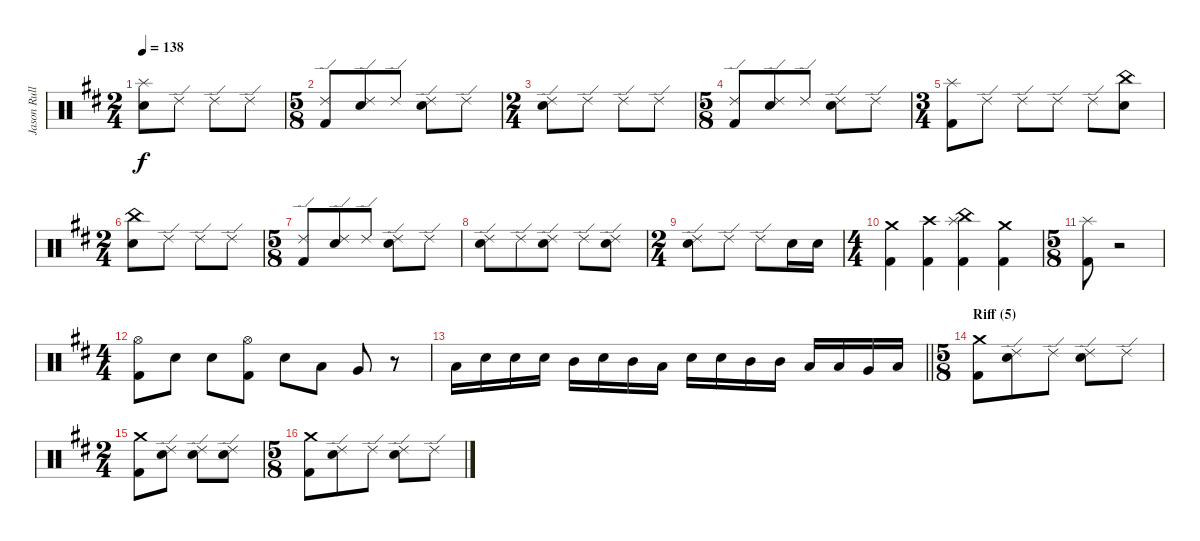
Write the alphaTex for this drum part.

\track ("Jason Rullo (drums)" "Jason Rull") {instrument percussion}
\staff {score}
\articulation defaults
\ts (2 4)
\tempo 138
\clef neutral
\ks bminor
("Splash (hit)" "Electric Snare (hit)").8{dy f} "Ride (edge) 2".8 "Ride (edge) 2".8 "Ride (edge) 2".8 |
\ts (5 8)
("Kick (hit) 2" "Ride (edge) 2").8 ("Electric Snare (hit)" "Ride (edge) 2").8 "Ride (edge) 2".8 ("Electric Snare (hit)" "Ride (edge) 2").8 "Ride (edge) 2".8 |
\ts (2 4)
("Electric Snare (hit)" "Ride (edge) 2").8 "Ride (edge) 2".8 "Ride (edge) 2".8 "Ride (edge) 2".8 |
\ts (5 8)
("Ride (edge) 2" "Kick (hit) 2").8 ("Electric Snare (hit)" "Ride (edge) 2").8 "Ride (edge) 2".8 ("Electric Snare (hit)" "Ride (edge) 2").8 "Ride (edge) 2".8 |
\ts (3 4)
("Splash (hit)" "Kick (hit) 2").8 "Ride (edge) 2".8 "Ride (edge) 2".8 "Ride (edge) 2".8 "Ride (edge) 2".8 ("China (hit)" "Electric Snare (hit)").8 |
\ts (2 4)
("China (hit)" "Electric Snare (hit)").8 "Ride (edge) 2".8 "Ride (edge) 2".8 "Ride (edge) 2".8 |
\ts (5 8)
("Ride (edge) 2" "Kick (hit) 2").8 ("Electric Snare (hit)" "Ride (edge) 2").8 "Ride (edge) 2".8 ("Electric Snare (hit)" "Ride (edge) 2").8 "Ride (edge) 2".8 |
("Electric Snare (hit)" "Ride (edge) 2").8 "Ride (edge) 2".8 ("Electric Snare (hit)" "Ride (edge) 2").8 "Ride (edge) 2".8 ("Electric Snare (hit)" "Ride (edge) 2").8 |
\ts (2 4)
("Electric Snare (hit)" "Ride (edge) 2").8 "Ride (edge) 2".8 "Ride (edge) 2".8 "Electric Snare (hit)".16 "Electric Snare (hit)".16 |
\ts (4 4)
("Crash medium (hit)" "Kick (hit) 2").4 ("Crash high (hit)" "Kick (hit) 2").4 ("Splash (hit)" "China (hit)" "Kick (hit) 2").4 ("Crash medium (hit)" "Kick (hit) 2").4 |
\ts (5 8)
("Splash (hit)" "Kick (hit) 2").8 r.2 |
\ts (4 4)
("Hi-Hat (open)" "Kick (hit) 2").8 "Electric Snare (hit)".8 "Electric Snare (hit)".8 ("Hi-Hat (open)" "Kick (hit) 2").8 "Electric Snare (hit)".8 "Low Tom (hit)".8 "Very Low Tom (hit)".8 r.8 |
\barLineRight lightlight "Low Tom (hit)".16 "Electric Snare (hit)".16 "Electric Snare (hit)".16 "Electric Snare (hit)".16 "Mid Tom (hit)".16 "Electric Snare (hit)".16 "Mid Tom (hit)".16 "Low Tom (hit)".16 "Electric Snare (hit)".16 "Electric Snare (hit)".16 "Mid Tom (hit)".16 "Mid Tom (hit)".16 "Low Tom (hit)".16 "Low Tom (hit)".16 "Very Low Tom (hit)".16 "Low Floor Tom (hit)".16
|
\ts (5 8)
\section ("" "Riff (5)")
("Crash medium (hit)" "Kick (hit) 2").8 ("Ride (edge) 2" "Electric Snare (hit)").8 "Ride (edge) 2".8 ("Ride (edge) 2" "Electric Snare (hit)").8 "Ride (edge) 2".8 |
\ts (2 4)
("Crash medium (hit)" "Kick (hit) 2").8 ("Ride (edge) 2" "Electric Snare (hit)").8 ("Ride (edge) 2" "Electric Snare (hit)").8 ("Ride (edge) 2" "Electric Snare (hit)").8 |
\ts (5 8)
("Crash medium (hit)" "Kick (hit) 2").8 ("Ride (edge) 2" "Electric Snare (hit)").8 "Ride (edge) 2".8 ("Ride (edge) 2" "Electric Snare (hit)").8 "Ride (edge) 2".8
